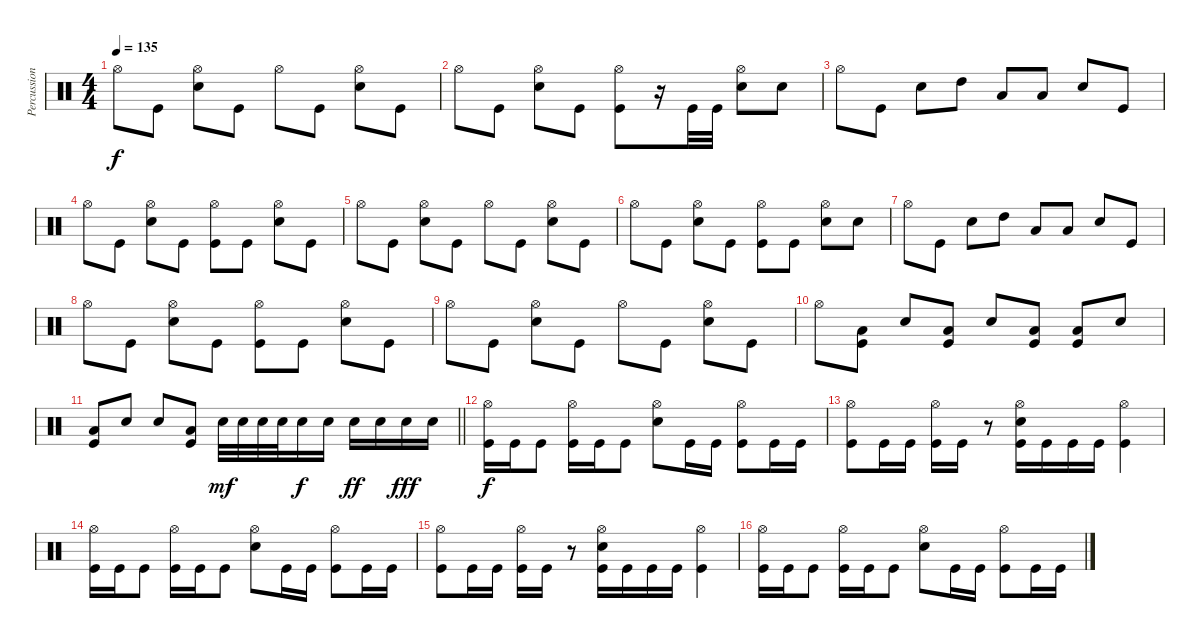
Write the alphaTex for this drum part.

\track ("Percussion" "Percussion") {instrument percussion}
\staff {score}
\articulation defaults
\ts (4 4)
\tempo 135
\clef neutral
\ks c "Hi-Hat (open)".8{dy f} "Kick (hit)".8
("Hi-Hat (open)" "Electric Snare (hit)").8 "Kick (hit)".8 "Hi-Hat (open)".8 "Kick (hit)".8 ("Hi-Hat (open)" "Electric Snare (hit)").8 "Kick (hit)".8 |
"Hi-Hat (open)".8 "Kick (hit)".8 ("Hi-Hat (open)" "Electric Snare (hit)").8 "Kick (hit)".8 ("Hi-Hat (open)" "Kick (hit)").8 r.16 "Kick (hit)".32 "Kick (hit)".32 ("Hi-Hat (open)" "Electric Snare (hit)").8 "Electric Snare (hit)".8 |
"Hi-Hat (open)".8 "Kick (hit)".8 "Electric Snare (hit)".8 "High Tom (hit)".8 "Low Tom (hit)".8 "Low Floor Tom (hit)".8 "Electric Snare (hit)".8 "Kick (hit)".8 |
"Hi-Hat (open)".8 "Kick (hit)".8 ("Hi-Hat (open)" "Electric Snare (hit)").8 "Kick (hit)".8 ("Hi-Hat (open)" "Kick (hit)").8 "Kick (hit)".8 ("Hi-Hat (open)" "Electric Snare (hit)").8 "Kick (hit)".8 |
"Hi-Hat (open)".8 "Kick (hit)".8 ("Hi-Hat (open)" "Electric Snare (hit)").8 "Kick (hit)".8 "Hi-Hat (open)".8 "Kick (hit)".8 ("Hi-Hat (open)" "Electric Snare (hit)").8 "Kick (hit)".8 |
"Hi-Hat (open)".8 "Kick (hit)".8 ("Hi-Hat (open)" "Electric Snare (hit)").8 "Kick (hit)".8 ("Hi-Hat (open)" "Kick (hit)").8 "Kick (hit)".8 ("Hi-Hat (open)" "Electric Snare (hit)").8 "Electric Snare (hit)".8 |
"Hi-Hat (open)".8 "Kick (hit)".8 "Electric Snare (hit)".8 "High Tom (hit)".8 "Low Tom (hit)".8 "Low Floor Tom (hit)".8 "Electric Snare (hit)".8 "Kick (hit)".8 |
"Hi-Hat (open)".8 "Kick (hit)".8 ("Hi-Hat (open)" "Electric Snare (hit)").8 "Kick (hit)".8 ("Hi-Hat (open)" "Kick (hit)").8 "Kick (hit)".8 ("Hi-Hat (open)" "Electric Snare (hit)").8 "Kick (hit)".8 |
"Hi-Hat (open)".8 "Kick (hit)".8 ("Hi-Hat (open)" "Electric Snare (hit)").8 "Kick (hit)".8 "Hi-Hat (open)".8 "Kick (hit)".8 ("Hi-Hat (open)" "Electric Snare (hit)").8 "Kick (hit)".8 |
"Hi-Hat (open)".8 ("Low Tom (hit)" "Kick (hit)").8 "Electric Snare (hit)".8 ("Low Tom (hit)" "Kick (hit)").8 "Electric Snare (hit)".8 ("Low Tom (hit)" "Kick (hit)").8 ("Low Tom (hit)" "Kick (hit)").8 "Electric Snare (hit)".8 |
\barLineRight lightlight
("Low Tom (hit)" "Kick (hit)").8 "Electric Snare (hit)".8 "Electric Snare (hit)".8 ("Low Tom (hit)" "Kick (hit)").8 "Electric Snare (hit)".32{dy mf} "Electric Snare (hit)".32 "Electric Snare (hit)".32 "Electric Snare (hit)".32 "Electric Snare (hit)".16{dy f} "Electric Snare (hit)".16 "Electric Snare (hit)".16{dy ff} "Electric Snare (hit)".16 "Electric Snare (hit)".16{dy fff} "Electric Snare (hit)".16 |
("Hi-Hat (open)" "Kick (hit)").16{dy f} "Kick (hit)".16 "Kick (hit)".8 ("Hi-Hat (open)" "Kick (hit)").16 "Kick (hit)".16 "Kick (hit)".8 ("Hi-Hat (open)" "Electric Snare (hit)").8 "Kick (hit)".16 "Kick (hit)".16 ("Hi-Hat (open)" "Kick (hit)").8 "Kick (hit)".16 "Kick (hit)".16 |
("Hi-Hat (open)" "Kick (hit)").8 "Kick (hit)".16 "Kick (hit)".16 ("Hi-Hat (open)" "Kick (hit)").16 "Kick (hit)".16 r.8 ("Hi-Hat (open)" "Electric Snare (hit)" "Kick (hit)").16 "Kick (hit)".16 "Kick (hit)".16 "Kick (hit)".16 ("Hi-Hat (open)" "Kick (hit)").4 |
("Hi-Hat (open)" "Kick (hit)").16 "Kick (hit)".16 "Kick (hit)".8 ("Hi-Hat (open)" "Kick (hit)").16 "Kick (hit)".16 "Kick (hit)".8 ("Hi-Hat (open)" "Electric Snare (hit)").8 "Kick (hit)".16 "Kick (hit)".16 ("Hi-Hat (open)" "Kick (hit)").8 "Kick (hit)".16 "Kick (hit)".16 |
("Hi-Hat (open)" "Kick (hit)").8 "Kick (hit)".16 "Kick (hit)".16 ("Hi-Hat (open)" "Kick (hit)").16 "Kick (hit)".16 r.8 ("Hi-Hat (open)" "Electric Snare (hit)" "Kick (hit)").16 "Kick (hit)".16 "Kick (hit)".16 "Kick (hit)".16 ("Hi-Hat (open)" "Kick (hit)").4 |
("Hi-Hat (open)" "Kick (hit)").16 "Kick (hit)".16 "Kick (hit)".8 ("Hi-Hat (open)" "Kick (hit)").16 "Kick (hit)".16 "Kick (hit)".8 ("Hi-Hat (open)" "Electric Snare (hit)").8 "Kick (hit)".16 "Kick (hit)".16 ("Hi-Hat (open)" "Kick (hit)").8 "Kick (hit)".16 "Kick (hit)".16
